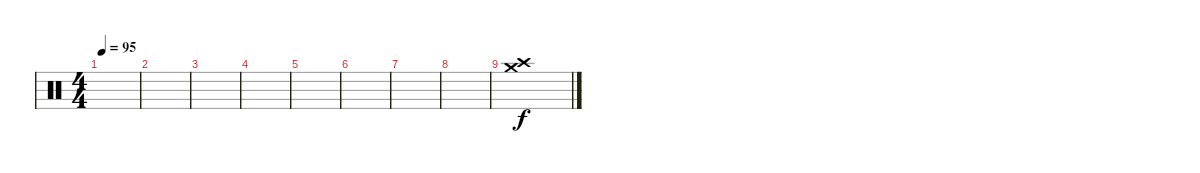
\track "" {instrument percussion}
\staff {score}
\articulation defaults
\ts (4 4)
\tempo 95
\clef neutral
\ks c
|
|
|
|
|
|
|
|
("Crash medium (hit)" "Crash high (hit)").1
